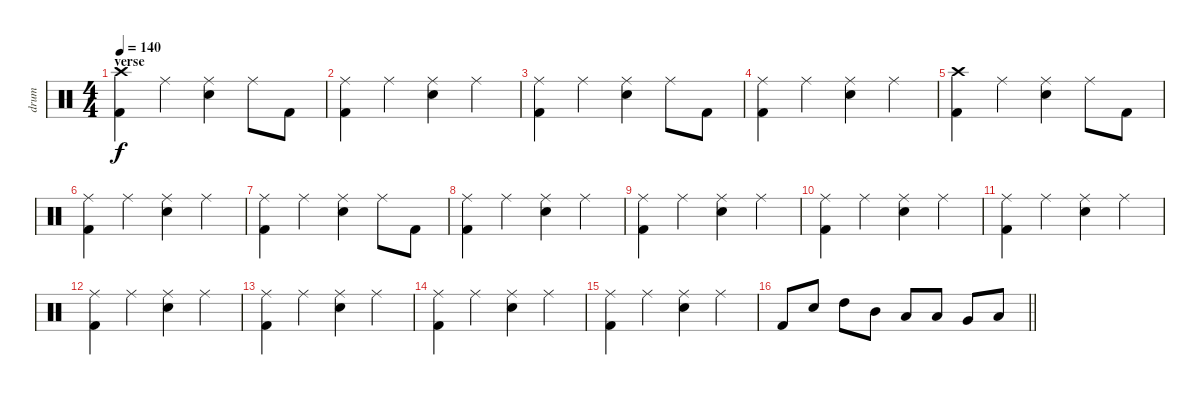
\track ("drum" "drum") {instrument percussion}
\staff {score}
\articulation defaults
\ts (4 4)
\section ("" "verse")
\tempo 140
\clef neutral
\ks c
("Crash high (hit)" "Kick (hit) 2").4{dy f} "Ride (middle)".4 ("Ride (middle)" "Electric Snare (hit)").4 "Ride (middle)".8 "Kick (hit) 2".8 |
("Ride (middle)" "Kick (hit) 2").4 "Ride (middle)".4 ("Ride (middle)" "Electric Snare (hit)").4 "Ride (middle)".4 |
("Ride (middle)" "Kick (hit) 2").4 "Ride (middle)".4 ("Ride (middle)" "Electric Snare (hit)").4 "Ride (middle)".8 "Kick (hit) 2".8 |
("Ride (middle)" "Kick (hit) 2").4 "Ride (middle)".4 ("Ride (middle)" "Electric Snare (hit)").4 "Ride (middle)".4 |
("Crash high (hit)" "Kick (hit) 2").4 "Ride (middle)".4 ("Ride (middle)" "Electric Snare (hit)").4 "Ride (middle)".8 "Kick (hit) 2".8 |
("Ride (middle)" "Kick (hit) 2").4 "Ride (middle)".4 ("Ride (middle)" "Electric Snare (hit)").4 "Ride (middle)".4 |
("Ride (middle)" "Kick (hit) 2").4 "Ride (middle)".4 ("Ride (middle)" "Electric Snare (hit)").4 "Ride (middle)".8 "Kick (hit) 2".8 |
("Ride (middle)" "Kick (hit) 2").4 "Ride (middle)".4 ("Ride (middle)" "Electric Snare (hit)").4 "Ride (middle)".4 |
("Ride (middle)" "Kick (hit) 2").4 "Ride (middle)".4 ("Ride (middle)" "Electric Snare (hit)").4 "Ride (middle)".4 |
("Ride (middle)" "Kick (hit) 2").4 "Ride (middle)".4 ("Ride (middle)" "Electric Snare (hit)").4 "Ride (middle)".4 |
("Ride (middle)" "Kick (hit) 2").4 "Ride (middle)".4 ("Ride (middle)" "Electric Snare (hit)").4 "Ride (middle)".4 |
("Ride (middle)" "Kick (hit) 2").4 "Ride (middle)".4 ("Ride (middle)" "Electric Snare (hit)").4 "Ride (middle)".4 |
("Ride (middle)" "Kick (hit) 2").4 "Ride (middle)".4 ("Ride (middle)" "Electric Snare (hit)").4 "Ride (middle)".4 |
("Ride (middle)" "Kick (hit) 2").4 "Ride (middle)".4 ("Ride (middle)" "Electric Snare (hit)").4 "Ride (middle)".4 |
("Ride (middle)" "Kick (hit) 2").4 "Ride (middle)".4 ("Ride (middle)" "Electric Snare (hit)").4 "Ride (middle)".4 |
\barLineRight lightlight "Kick (hit) 2".8 "Electric Snare (hit)".8 "High Tom (hit)".8 "Mid Tom (hit)".8 "Low Tom (hit)".8 "Low Tom (hit)".8 "Very Low Tom (hit)".8 "Low Floor Tom (hit)".8
